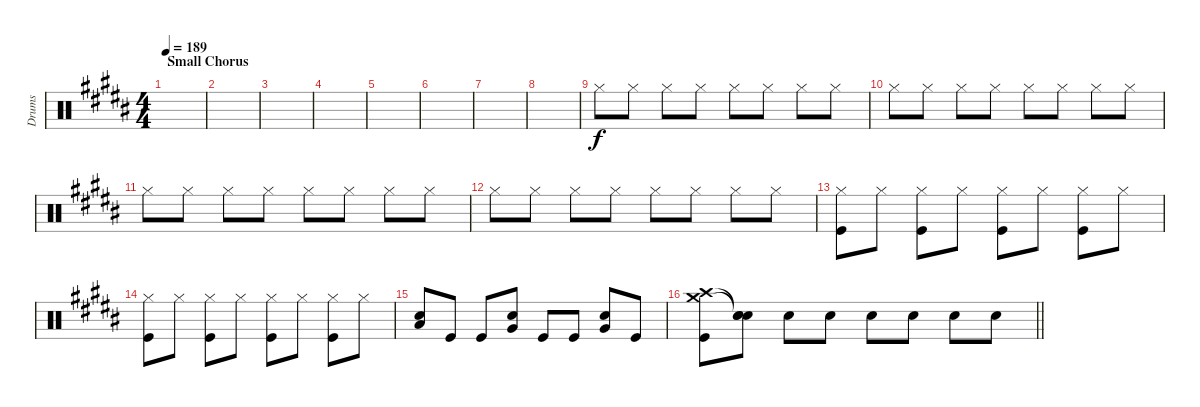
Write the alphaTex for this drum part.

\track ("Drums" "Drums") {instrument percussion}
\staff {score}
\articulation defaults
\ts (4 4)
\section ("" "Small Chorus")
\tempo 189
\clef neutral
\ks b
|
|
|
|
|
|
|
|
"Hi-Hat (closed)".8 "Hi-Hat (closed)".8 "Hi-Hat (closed)".8 "Hi-Hat (closed)".8 "Hi-Hat (closed)".8 "Hi-Hat (closed)".8 "Hi-Hat (closed)".8 "Hi-Hat (closed)".8 |
"Hi-Hat (closed)".8 "Hi-Hat (closed)".8 "Hi-Hat (closed)".8 "Hi-Hat (closed)".8 "Hi-Hat (closed)".8 "Hi-Hat (closed)".8 "Hi-Hat (closed)".8 "Hi-Hat (closed)".8 |
"Hi-Hat (closed)".8 "Hi-Hat (closed)".8 "Hi-Hat (closed)".8 "Hi-Hat (closed)".8 "Hi-Hat (closed)".8 "Hi-Hat (closed)".8 "Hi-Hat (closed)".8 "Hi-Hat (closed)".8 |
"Hi-Hat (closed)".8 "Hi-Hat (closed)".8 "Hi-Hat (closed)".8 "Hi-Hat (closed)".8 "Hi-Hat (closed)".8 "Hi-Hat (closed)".8 "Hi-Hat (closed)".8 "Hi-Hat (closed)".8 |
("Hi-Hat (closed)" "Kick (hit)").8 "Hi-Hat (closed)".8 ("Hi-Hat (closed)" "Kick (hit)").8 "Hi-Hat (closed)".8 ("Hi-Hat (closed)" "Kick (hit)").8 "Hi-Hat (closed)".8 ("Hi-Hat (closed)" "Kick (hit)").8 "Hi-Hat (closed)".8 |
("Hi-Hat (closed)" "Kick (hit)").8 "Hi-Hat (closed)".8 ("Hi-Hat (closed)" "Kick (hit)").8 "Hi-Hat (closed)".8 ("Hi-Hat (closed)" "Kick (hit)").8 "Hi-Hat (closed)".8 ("Hi-Hat (closed)" "Kick (hit)").8 "Hi-Hat (closed)".8 |
("Snare (hit) 2" "Low Tom (hit)").8 "Kick (hit)".8 "Kick (hit)".8 ("Snare (hit) 2" "Very Low Tom (hit)").8 "Kick (hit)".8 "Kick (hit)".8 ("Snare (hit) 2" "Very Low Tom (hit)").8 "Kick (hit)".8 |
\barLineRight lightlight
("Crash high (hit)" "Crash medium (hit)" "Kick (hit)").8 ("Snare (hit)"{t} "Snare (hit)"{t} "Snare (hit) 2").8 "Snare (hit) 2".8 "Snare (hit) 2".8 "Snare (hit) 2".8 "Snare (hit) 2".8 "Snare (hit) 2".8 "Snare (hit) 2".8
